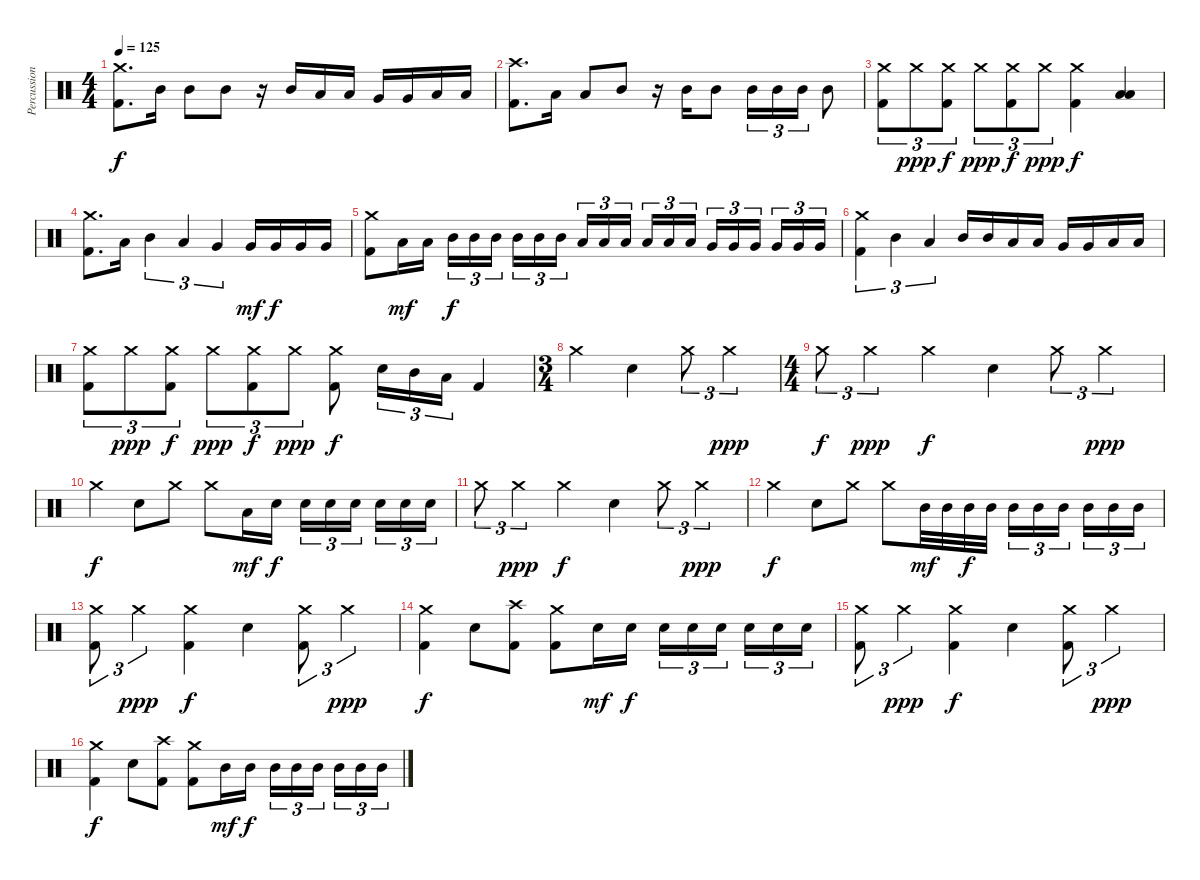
\track ("Percussion" "Percussion") {instrument percussion}
\staff {score}
\articulation defaults
\ts (4 4)
\tempo 125
\clef neutral
\ks c
("Kick (hit) 2" "Crash medium (hit)").8{d dy f} "Mid Tom (hit)".16 "Mid Tom (hit)".8 "Mid Tom (hit)".8 r.16 "Mid Tom (hit)".16 "Low Tom (hit)".16 "Low Tom (hit)".16 "Very Low Tom (hit)".16 "Very Low Tom (hit)".16 "Low Floor Tom (hit)".16 "Low Floor Tom (hit)".16 |
("Kick (hit) 2" "Crash high (hit)").8{d} "Low Tom (hit)".16 "Low Tom (hit)".8 "Mid Tom (hit)".8 r.16 "Mid Tom (hit)".16 "Mid Tom (hit)".8 "Mid Tom (hit)".16{tu (3 2)} "Mid Tom (hit)".16{tu (3 2)} "Mid Tom (hit)".16{tu (3 2)} "Mid Tom (hit)".8 |
("Kick (hit) 2" "Crash medium (hit)").8{tu (3 2)} "Crash medium (hit)".8{tu (3 2) dy ppp} ("Kick (hit) 2" "Crash medium (hit)").8{tu (3 2) dy f} "Crash medium (hit)".8{tu (3 2) dy ppp} ("Kick (hit) 2" "Crash medium (hit)").8{tu (3 2) dy f} "Crash medium (hit)".8{tu (3 2) dy ppp} ("Kick (hit) 2" "Crash medium (hit)").4{dy f} ("Low Tom (hit)" "Low Tom (hit)").4 |
("Kick (hit) 2" "Crash medium (hit)").8{d} "Low Tom (hit)".16 "Mid Tom (hit)".4{tu (3 2)} "Low Tom (hit)".4{tu (3 2)} "Very Low Tom (hit)".4{tu (3 2)} "Very Low Tom (hit)".16{dy mf} "Very Low Tom (hit)".16{dy f} "Very Low Tom (hit)".16 "Very Low Tom (hit)".16 |
("Kick (hit) 2" "Crash medium (hit)").8 "Low Tom (hit)".16{dy mf} "Low Tom (hit)".16 "Mid Tom (hit)".16{tu (3 2) dy f} "Mid Tom (hit)".16{tu (3 2)} "Mid Tom (hit)".16{tu (3 2)} "Mid Tom (hit)".16{tu (3 2)} "Mid Tom (hit)".16{tu (3 2)} "Mid Tom (hit)".16{tu (3 2)} "Low Tom (hit)".16{tu (3 2)} "Low Tom (hit)".16{tu (3 2)} "Low Tom (hit)".16{tu (3 2)} "Low Tom (hit)".16{tu (3 2)} "Low Tom (hit)".16{tu (3 2)} "Low Tom (hit)".16{tu (3 2)} "Very Low Tom (hit)".16{tu (3 2)} "Very Low Tom (hit)".16{tu (3 2)} "Very Low Tom (hit)".16{tu (3 2)} "Very Low Tom (hit)".16{tu (3 2)} "Very Low Tom (hit)".16{tu (3 2)} "Very Low Tom (hit)".16{tu (3 2)} |
("Kick (hit) 2" "Crash medium (hit)").4{tu (3 2)} "Mid Tom (hit)".4{tu (3 2)} "Low Tom (hit)".4{tu (3 2)} "Mid Tom (hit)".16 "Mid Tom (hit)".16 "Low Tom (hit)".16 "Low Tom (hit)".16 "Very Low Tom (hit)".16 "Very Low Tom (hit)".16 "Low Floor Tom (hit)".16 "Low Floor Tom (hit)".16 |
("Kick (hit) 2" "Crash medium (hit)").8{tu (3 2)} "Crash medium (hit)".8{tu (3 2) dy ppp} ("Kick (hit) 2" "Crash medium (hit)").8{tu (3 2) dy f} "Crash medium (hit)".8{tu (3 2) dy ppp} ("Kick (hit) 2" "Crash medium (hit)").8{tu (3 2) dy f} "Crash medium (hit)".8{tu (3 2) dy ppp} ("Kick (hit) 2" "Crash medium (hit)").8{dy f} "Electric Snare (hit)".16{tu (3 2)} "Mid Tom (hit)".16{tu (3 2)} "Low Tom (hit)".16{tu (3 2)} "Kick (hit) 2".4 |
\ts (3 4)
"Crash medium (hit)".4 "Electric Snare (hit)".4 "Crash medium (hit)".8{tu (3 2)} "Crash medium (hit)".4{tu (3 2) dy ppp} |
\ts (4 4)
"Crash medium (hit)".8{tu (3 2) dy f} "Crash medium (hit)".4{tu (3 2) dy ppp} "Crash medium (hit)".4{dy f} "Electric Snare (hit)".4 "Crash medium (hit)".8{tu (3 2)} "Crash medium (hit)".4{tu (3 2) dy ppp} |
"Crash medium (hit)".4{dy f} "Electric Snare (hit)".8 "Crash medium (hit)".8 "Crash medium (hit)".8 "Low Tom (hit)".16{dy mf} "Electric Snare (hit)".16{dy f} "Electric Snare (hit)".16{tu (3 2)} "Electric Snare (hit)".16{tu (3 2)} "Electric Snare (hit)".16{tu (3 2)} "Electric Snare (hit)".16{tu (3 2)} "Electric Snare (hit)".16{tu (3 2)} "Electric Snare (hit)".16{tu (3 2)} |
"Crash medium (hit)".8{tu (3 2)} "Crash medium (hit)".4{tu (3 2) dy ppp} "Crash medium (hit)".4{dy f} "Electric Snare (hit)".4 "Crash medium (hit)".8{tu (3 2)} "Crash medium (hit)".4{tu (3 2) dy ppp} |
"Crash medium (hit)".4{dy f} "Electric Snare (hit)".8 "Crash medium (hit)".8 "Crash medium (hit)".8 "Mid Tom (hit)".32{dy mf} "Mid Tom (hit)".32 "Mid Tom (hit)".32{dy f} "Mid Tom (hit)".32 "Mid Tom (hit)".16{tu (3 2)} "Mid Tom (hit)".16{tu (3 2)} "Mid Tom (hit)".16{tu (3 2)} "Mid Tom (hit)".16{tu (3 2)} "Mid Tom (hit)".16{tu (3 2)} "Mid Tom (hit)".16{tu (3 2)} |
("Kick (hit) 2" "Crash medium (hit)").8{tu (3 2)} "Crash medium (hit)".4{tu (3 2) dy ppp} ("Kick (hit) 2" "Crash medium (hit)").4{dy f} "Electric Snare (hit)".4 ("Kick (hit) 2" "Crash medium (hit)").8{tu (3 2)} "Crash medium (hit)".4{tu (3 2) dy ppp} |
("Kick (hit) 2" "Crash medium (hit)").4{dy f} "Electric Snare (hit)".8 ("Kick (hit) 2" "Crash high (hit)").8 ("Kick (hit) 2" "Crash medium (hit)").8 "Electric Snare (hit)".16{dy mf} "Electric Snare (hit)".16{dy f} "Electric Snare (hit)".16{tu (3 2)} "Electric Snare (hit)".16{tu (3 2)} "Electric Snare (hit)".16{tu (3 2)} "Electric Snare (hit)".16{tu (3 2)} "Electric Snare (hit)".16{tu (3 2)} "Electric Snare (hit)".16{tu (3 2)} |
("Kick (hit) 2" "Crash medium (hit)").8{tu (3 2)} "Crash medium (hit)".4{tu (3 2) dy ppp} ("Kick (hit) 2" "Crash medium (hit)").4{dy f} "Electric Snare (hit)".4 ("Kick (hit) 2" "Crash medium (hit)").8{tu (3 2)} "Crash medium (hit)".4{tu (3 2) dy ppp} |
("Kick (hit) 2" "Crash medium (hit)").4{dy f} "Electric Snare (hit)".8 ("Kick (hit) 2" "Crash high (hit)").8 ("Kick (hit) 2" "Crash medium (hit)").8 "Mid Tom (hit)".16{dy mf} "Mid Tom (hit)".16{dy f} "Mid Tom (hit)".16{tu (3 2)} "Mid Tom (hit)".16{tu (3 2)} "Mid Tom (hit)".16{tu (3 2)} "Mid Tom (hit)".16{tu (3 2)} "Mid Tom (hit)".16{tu (3 2)} "Mid Tom (hit)".16{tu (3 2)}
